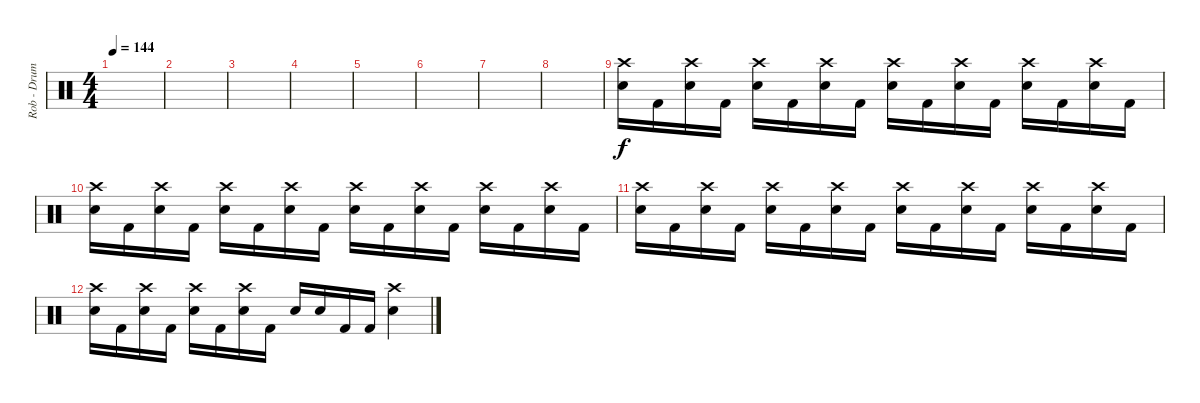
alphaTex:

\track ("Rob - Drums" "Rob - Drum") {instrument percussion}
\staff {score}
\articulation defaults
\ts (4 4)
\tempo 144
\clef neutral
\ks c
|
|
|
|
|
|
|
|
("Crash high (hit)" "Electric Snare (hit)").16 "Kick (hit) 2".16 ("Crash high (hit)" "Electric Snare (hit)").16 "Kick (hit) 2".16 ("Crash high (hit)" "Electric Snare (hit)").16 "Kick (hit) 2".16 ("Crash high (hit)" "Electric Snare (hit)").16 "Kick (hit) 2".16 ("Crash high (hit)" "Electric Snare (hit)").16 "Kick (hit) 2".16 ("Crash high (hit)" "Electric Snare (hit)").16 "Kick (hit) 2".16 ("Crash high (hit)" "Electric Snare (hit)").16 "Kick (hit) 2".16 ("Crash high (hit)" "Electric Snare (hit)").16 "Kick (hit) 2".16 |
("Crash high (hit)" "Electric Snare (hit)").16 "Kick (hit) 2".16 ("Crash high (hit)" "Electric Snare (hit)").16 "Kick (hit) 2".16 ("Crash high (hit)" "Electric Snare (hit)").16 "Kick (hit) 2".16 ("Crash high (hit)" "Electric Snare (hit)").16 "Kick (hit) 2".16 ("Crash high (hit)" "Electric Snare (hit)").16 "Kick (hit) 2".16 ("Crash high (hit)" "Electric Snare (hit)").16 "Kick (hit) 2".16 ("Crash high (hit)" "Electric Snare (hit)").16 "Kick (hit) 2".16 ("Crash high (hit)" "Electric Snare (hit)").16 "Kick (hit) 2".16 |
("Crash high (hit)" "Electric Snare (hit)").16 "Kick (hit) 2".16 ("Crash high (hit)" "Electric Snare (hit)").16 "Kick (hit) 2".16 ("Crash high (hit)" "Electric Snare (hit)").16 "Kick (hit) 2".16 ("Crash high (hit)" "Electric Snare (hit)").16 "Kick (hit) 2".16 ("Crash high (hit)" "Electric Snare (hit)").16 "Kick (hit) 2".16 ("Crash high (hit)" "Electric Snare (hit)").16 "Kick (hit) 2".16 ("Crash high (hit)" "Electric Snare (hit)").16 "Kick (hit) 2".16 ("Crash high (hit)" "Electric Snare (hit)").16 "Kick (hit) 2".16 |
("Crash high (hit)" "Electric Snare (hit)").16 "Kick (hit) 2".16 ("Crash high (hit)" "Electric Snare (hit)").16 "Kick (hit) 2".16 ("Crash high (hit)" "Electric Snare (hit)").16 "Kick (hit) 2".16 ("Crash high (hit)" "Electric Snare (hit)").16 "Kick (hit) 2".16 "Electric Snare (hit)".16 "Electric Snare (hit)".16 "Kick (hit) 2".16 "Kick (hit) 2".16 ("Crash high (hit)" "Electric Snare (hit)").4
